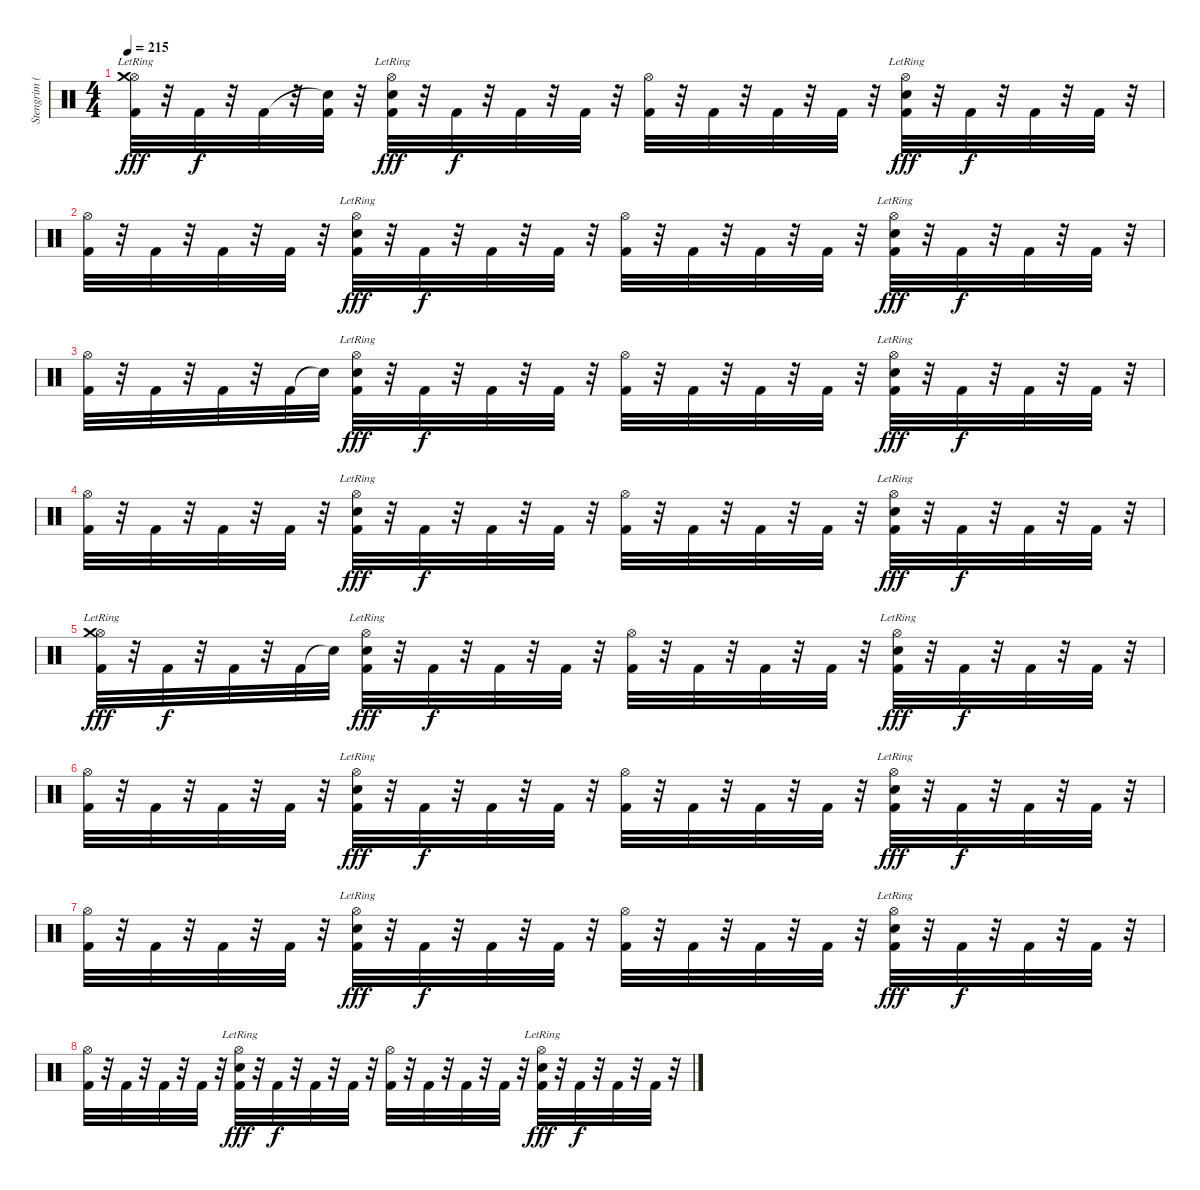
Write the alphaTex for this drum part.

\track ("Stengrim ( Batterie )" "Stengrim (") {instrument percussion}
\staff {score}
\articulation defaults
\ts (4 4)
\tempo 215
\clef neutral
\ks c
("Hi-Hat (open)" "Crash medium (hit)"{lr} "Kick (hit) 2").32{dy fff} r.32 "Kick (hit) 2".32{dy f} r.32 "Kick (hit) 2".32 r.32 ("Snare (hit)"{t} "Kick (hit) 2").32 r.32 ("Hi-Hat (open)" "Electric Snare (hit)"{lr} "Kick (hit) 2").32{dy fff} r.32 "Kick (hit) 2".32{dy f} r.32 "Kick (hit) 2".32 r.32 "Kick (hit) 2".32 r.32 ("Hi-Hat (open)" "Kick (hit) 2").32 r.32 "Kick (hit) 2".32 r.32 "Kick (hit) 2".32 r.32 "Kick (hit) 2".32 r.32 ("Hi-Hat (open)" "Electric Snare (hit)"{lr} "Kick (hit) 2").32{dy fff} r.32 "Kick (hit) 2".32{dy f} r.32 "Kick (hit) 2".32 r.32 "Kick (hit) 2".32 r.32 |
("Hi-Hat (open)" "Kick (hit) 2").32 r.32 "Kick (hit) 2".32 r.32 "Kick (hit) 2".32 r.32 "Kick (hit) 2".32 r.32 ("Hi-Hat (open)" "Electric Snare (hit)"{lr} "Kick (hit) 2").32{dy fff} r.32 "Kick (hit) 2".32{dy f} r.32 "Kick (hit) 2".32 r.32 "Kick (hit) 2".32 r.32 ("Hi-Hat (open)" "Kick (hit) 2").32 r.32 "Kick (hit) 2".32 r.32 "Kick (hit) 2".32 r.32 "Kick (hit) 2".32 r.32 ("Hi-Hat (open)" "Electric Snare (hit)"{lr} "Kick (hit) 2").32{dy fff} r.32 "Kick (hit) 2".32{dy f} r.32 "Kick (hit) 2".32 r.32 "Kick (hit) 2".32 r.32 |
("Hi-Hat (open)" "Kick (hit) 2").32 r.32 "Kick (hit) 2".32 r.32 "Kick (hit) 2".32 r.32 "Kick (hit) 2".32 "Snare (hit)"{t}.32 ("Hi-Hat (open)" "Electric Snare (hit)"{lr} "Kick (hit) 2").32{dy fff} r.32 "Kick (hit) 2".32{dy f} r.32 "Kick (hit) 2".32 r.32 "Kick (hit) 2".32 r.32 ("Hi-Hat (open)" "Kick (hit) 2").32 r.32 "Kick (hit) 2".32 r.32 "Kick (hit) 2".32 r.32 "Kick (hit) 2".32 r.32 ("Hi-Hat (open)" "Electric Snare (hit)"{lr} "Kick (hit) 2").32{dy fff} r.32 "Kick (hit) 2".32{dy f} r.32 "Kick (hit) 2".32 r.32 "Kick (hit) 2".32 r.32 |
("Hi-Hat (open)" "Kick (hit) 2").32 r.32 "Kick (hit) 2".32 r.32 "Kick (hit) 2".32 r.32 "Kick (hit) 2".32 r.32 ("Hi-Hat (open)" "Electric Snare (hit)"{lr} "Kick (hit) 2").32{dy fff} r.32 "Kick (hit) 2".32{dy f} r.32 "Kick (hit) 2".32 r.32 "Kick (hit) 2".32 r.32 ("Hi-Hat (open)" "Kick (hit) 2").32 r.32 "Kick (hit) 2".32 r.32 "Kick (hit) 2".32 r.32 "Kick (hit) 2".32 r.32 ("Hi-Hat (open)" "Electric Snare (hit)"{lr} "Kick (hit) 2").32{dy fff} r.32 "Kick (hit) 2".32{dy f} r.32 "Kick (hit) 2".32 r.32 "Kick (hit) 2".32 r.32 |
("Hi-Hat (open)" "Crash medium (hit)"{lr} "Kick (hit) 2").32{dy fff} r.32 "Kick (hit) 2".32{dy f} r.32 "Kick (hit) 2".32 r.32 "Kick (hit) 2".32 "Snare (hit)"{t}.32 ("Hi-Hat (open)" "Electric Snare (hit)"{lr} "Kick (hit) 2").32{dy fff} r.32 "Kick (hit) 2".32{dy f} r.32 "Kick (hit) 2".32 r.32 "Kick (hit) 2".32 r.32 ("Hi-Hat (open)" "Kick (hit) 2").32 r.32 "Kick (hit) 2".32 r.32 "Kick (hit) 2".32 r.32 "Kick (hit) 2".32 r.32 ("Hi-Hat (open)" "Electric Snare (hit)"{lr} "Kick (hit) 2").32{dy fff} r.32 "Kick (hit) 2".32{dy f} r.32 "Kick (hit) 2".32 r.32 "Kick (hit) 2".32 r.32 |
("Hi-Hat (open)" "Kick (hit) 2").32 r.32 "Kick (hit) 2".32 r.32 "Kick (hit) 2".32 r.32 "Kick (hit) 2".32 r.32 ("Hi-Hat (open)" "Electric Snare (hit)"{lr} "Kick (hit) 2").32{dy fff} r.32 "Kick (hit) 2".32{dy f} r.32 "Kick (hit) 2".32 r.32 "Kick (hit) 2".32 r.32 ("Hi-Hat (open)" "Kick (hit) 2").32 r.32 "Kick (hit) 2".32 r.32 "Kick (hit) 2".32 r.32 "Kick (hit) 2".32 r.32 ("Hi-Hat (open)" "Electric Snare (hit)"{lr} "Kick (hit) 2").32{dy fff} r.32 "Kick (hit) 2".32{dy f} r.32 "Kick (hit) 2".32 r.32 "Kick (hit) 2".32 r.32 |
("Hi-Hat (open)" "Kick (hit) 2").32 r.32 "Kick (hit) 2".32 r.32 "Kick (hit) 2".32 r.32 "Kick (hit) 2".32 r.32 ("Hi-Hat (open)" "Electric Snare (hit)"{lr} "Kick (hit) 2").32{dy fff} r.32 "Kick (hit) 2".32{dy f} r.32 "Kick (hit) 2".32 r.32 "Kick (hit) 2".32 r.32 ("Hi-Hat (open)" "Kick (hit) 2").32 r.32 "Kick (hit) 2".32 r.32 "Kick (hit) 2".32 r.32 "Kick (hit) 2".32 r.32 ("Hi-Hat (open)" "Electric Snare (hit)"{lr} "Kick (hit) 2").32{dy fff} r.32 "Kick (hit) 2".32{dy f} r.32 "Kick (hit) 2".32 r.32 "Kick (hit) 2".32 r.32 |
("Hi-Hat (open)" "Kick (hit) 2").32 r.32 "Kick (hit) 2".32 r.32 "Kick (hit) 2".32 r.32 "Kick (hit) 2".32 r.32 ("Hi-Hat (open)" "Electric Snare (hit)"{lr} "Kick (hit) 2").32{dy fff} r.32 "Kick (hit) 2".32{dy f} r.32 "Kick (hit) 2".32 r.32 "Kick (hit) 2".32 r.32 ("Hi-Hat (open)" "Kick (hit) 2").32 r.32 "Kick (hit) 2".32 r.32 "Kick (hit) 2".32 r.32 "Kick (hit) 2".32 r.32 ("Hi-Hat (open)" "Electric Snare (hit)"{lr} "Kick (hit) 2").32{dy fff} r.32 "Kick (hit) 2".32{dy f} r.32 "Kick (hit) 2".32 r.32 "Kick (hit) 2".32 r.32
